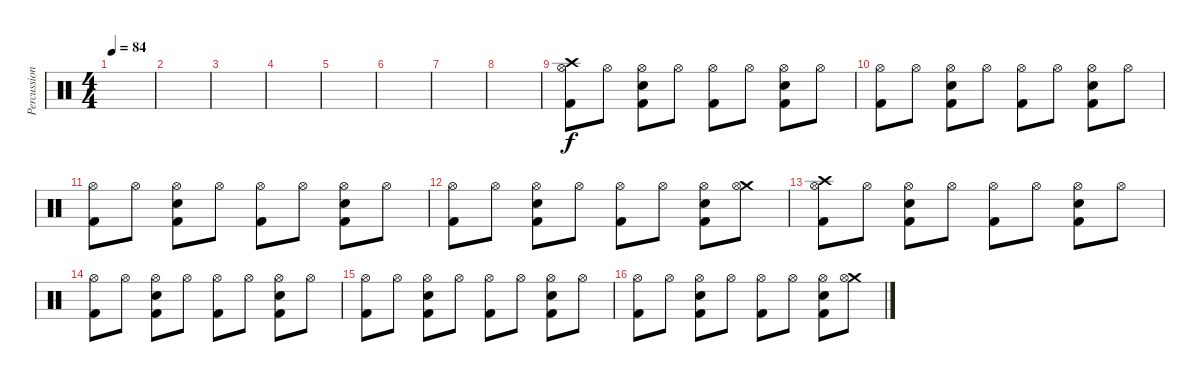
\track ("Percussion" "Percussion") {instrument percussion}
\staff {score}
\articulation defaults
\ts (4 4)
\tempo 84
\clef neutral
\ks c
|
|
|
|
|
|
|
|
("Crash high (hit)" "Hi-Hat (open)" "Kick (hit) 2").8 "Hi-Hat (open)".8 ("Hi-Hat (open)" "Snare (hit) 2" "Kick (hit) 2").8 "Hi-Hat (open)".8 ("Hi-Hat (open)" "Kick (hit) 2").8 "Hi-Hat (open)".8 ("Hi-Hat (open)" "Snare (hit) 2" "Kick (hit) 2").8 "Hi-Hat (open)".8 |
("Hi-Hat (open)" "Kick (hit) 2").8 "Hi-Hat (open)".8 ("Hi-Hat (open)" "Snare (hit) 2" "Kick (hit) 2").8 "Hi-Hat (open)".8 ("Hi-Hat (open)" "Kick (hit) 2").8 "Hi-Hat (open)".8 ("Hi-Hat (open)" "Snare (hit) 2" "Kick (hit) 2").8 "Hi-Hat (open)".8 |
("Hi-Hat (open)" "Kick (hit) 2").8 "Hi-Hat (open)".8 ("Hi-Hat (open)" "Snare (hit) 2" "Kick (hit) 2").8 "Hi-Hat (open)".8 ("Hi-Hat (open)" "Kick (hit) 2").8 "Hi-Hat (open)".8 ("Hi-Hat (open)" "Snare (hit) 2" "Kick (hit) 2").8 "Hi-Hat (open)".8 |
("Hi-Hat (open)" "Kick (hit) 2").8 "Hi-Hat (open)".8 ("Hi-Hat (open)" "Snare (hit) 2" "Kick (hit) 2").8 "Hi-Hat (open)".8 ("Hi-Hat (open)" "Kick (hit) 2").8 "Hi-Hat (open)".8 ("Hi-Hat (open)" "Snare (hit) 2" "Kick (hit) 2").8 ("Crash medium (hit)" "Hi-Hat (open)").8 |
("Crash high (hit)" "Hi-Hat (open)" "Kick (hit) 2").8 "Hi-Hat (open)".8 ("Hi-Hat (open)" "Snare (hit) 2" "Kick (hit) 2").8 "Hi-Hat (open)".8 ("Hi-Hat (open)" "Kick (hit) 2").8 "Hi-Hat (open)".8 ("Hi-Hat (open)" "Snare (hit) 2" "Kick (hit) 2").8 "Hi-Hat (open)".8 |
("Hi-Hat (open)" "Kick (hit) 2").8 "Hi-Hat (open)".8 ("Hi-Hat (open)" "Snare (hit) 2" "Kick (hit) 2").8 "Hi-Hat (open)".8 ("Hi-Hat (open)" "Kick (hit) 2").8 "Hi-Hat (open)".8 ("Hi-Hat (open)" "Snare (hit) 2" "Kick (hit) 2").8 "Hi-Hat (open)".8 |
("Hi-Hat (open)" "Kick (hit) 2").8 "Hi-Hat (open)".8 ("Hi-Hat (open)" "Snare (hit) 2" "Kick (hit) 2").8 "Hi-Hat (open)".8 ("Hi-Hat (open)" "Kick (hit) 2").8 "Hi-Hat (open)".8 ("Hi-Hat (open)" "Snare (hit) 2" "Kick (hit) 2").8 "Hi-Hat (open)".8 |
("Hi-Hat (open)" "Kick (hit) 2").8 "Hi-Hat (open)".8 ("Hi-Hat (open)" "Snare (hit) 2" "Kick (hit) 2").8 "Hi-Hat (open)".8 ("Hi-Hat (open)" "Kick (hit) 2").8 "Hi-Hat (open)".8 ("Hi-Hat (open)" "Snare (hit) 2" "Kick (hit) 2").8 ("Crash medium (hit)" "Hi-Hat (open)").8
